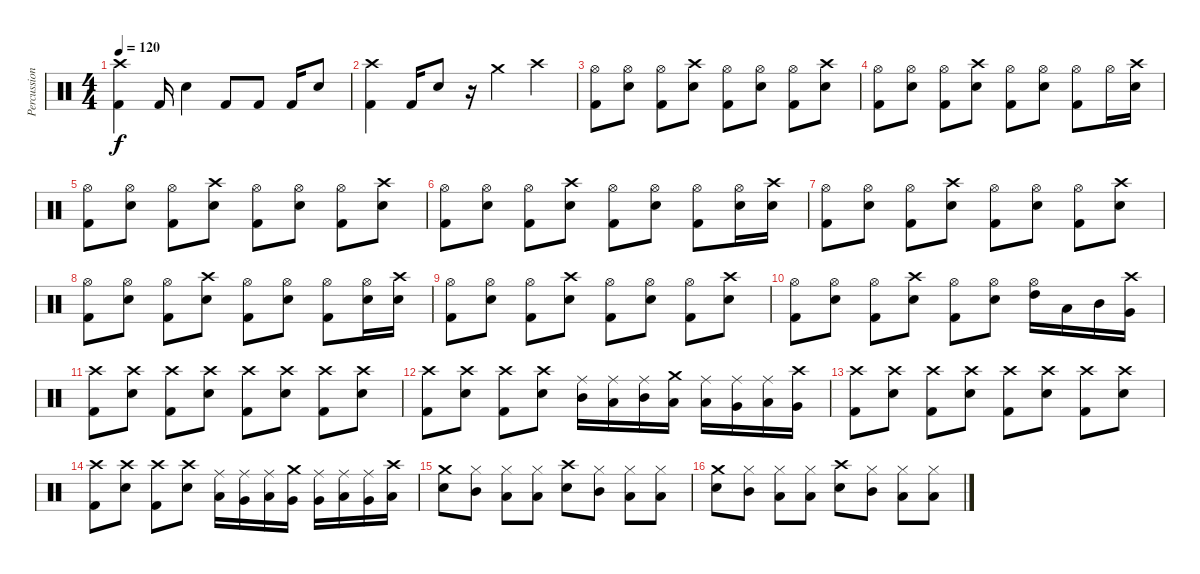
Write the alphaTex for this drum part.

\track ("Percussion" "Percussion") {instrument percussion}
\staff {score}
\articulation defaults
\ts (4 4)
\tempo 120
\clef neutral
\ks c
("Crash high (hit)" "Kick (hit) 2").4{dy f} "Kick (hit) 2".16 "Snare (hit) 2".4 "Kick (hit) 2".8 "Kick (hit) 2".8 "Kick (hit) 2".16 "Snare (hit) 2".8 |
("Crash high (hit)" "Kick (hit) 2").4 "Kick (hit) 2".16 "Snare (hit) 2".8 r.16 "Crash medium (hit)".4 "Crash high (hit)".4 |
("Hi-Hat (open)" "Kick (hit) 2").8 ("Hi-Hat (open)" "Snare (hit) 2").8 ("Hi-Hat (open)" "Kick (hit) 2").8 ("Crash high (hit)" "Snare (hit) 2").8 ("Hi-Hat (open)" "Kick (hit) 2").8 ("Hi-Hat (open)" "Snare (hit) 2").8 ("Hi-Hat (open)" "Kick (hit) 2").8 ("Crash high (hit)" "Snare (hit) 2").8 |
("Hi-Hat (open)" "Kick (hit) 2").8 ("Hi-Hat (open)" "Snare (hit) 2").8 ("Hi-Hat (open)" "Kick (hit) 2").8 ("Crash high (hit)" "Snare (hit) 2").8 ("Hi-Hat (open)" "Kick (hit) 2").8 ("Hi-Hat (open)" "Snare (hit) 2").8 ("Hi-Hat (open)" "Kick (hit) 2").8 "Hi-Hat (open)".16 ("Crash high (hit)" "Snare (hit) 2").16 |
("Hi-Hat (open)" "Kick (hit) 2").8 ("Hi-Hat (open)" "Snare (hit) 2").8 ("Hi-Hat (open)" "Kick (hit) 2").8 ("Crash high (hit)" "Snare (hit) 2").8 ("Hi-Hat (open)" "Kick (hit) 2").8 ("Hi-Hat (open)" "Snare (hit) 2").8 ("Hi-Hat (open)" "Kick (hit) 2").8 ("Crash high (hit)" "Snare (hit) 2").8 |
("Hi-Hat (open)" "Kick (hit) 2").8 ("Hi-Hat (open)" "Snare (hit) 2").8 ("Hi-Hat (open)" "Kick (hit) 2").8 ("Crash high (hit)" "Snare (hit) 2").8 ("Hi-Hat (open)" "Kick (hit) 2").8 ("Hi-Hat (open)" "Snare (hit) 2").8 ("Hi-Hat (open)" "Kick (hit) 2").8 ("Hi-Hat (open)" "Snare (hit) 2").16 ("Crash high (hit)" "Snare (hit) 2").16 |
("Hi-Hat (open)" "Kick (hit) 2").8 ("Hi-Hat (open)" "Snare (hit) 2").8 ("Hi-Hat (open)" "Kick (hit) 2").8 ("Crash high (hit)" "Snare (hit) 2").8 ("Hi-Hat (open)" "Kick (hit) 2").8 ("Hi-Hat (open)" "Snare (hit) 2").8 ("Hi-Hat (open)" "Kick (hit) 2").8 ("Crash high (hit)" "Snare (hit) 2").8 |
("Hi-Hat (open)" "Kick (hit) 2").8 ("Hi-Hat (open)" "Snare (hit) 2").8 ("Hi-Hat (open)" "Kick (hit) 2").8 ("Crash high (hit)" "Snare (hit) 2").8 ("Hi-Hat (open)" "Kick (hit) 2").8 ("Hi-Hat (open)" "Snare (hit) 2").8 ("Hi-Hat (open)" "Kick (hit) 2").8 ("Hi-Hat (open)" "Snare (hit) 2").16 ("Crash high (hit)" "Snare (hit) 2").16 |
("Hi-Hat (open)" "Kick (hit) 2").8 ("Hi-Hat (open)" "Snare (hit) 2").8 ("Hi-Hat (open)" "Kick (hit) 2").8 ("Crash high (hit)" "Snare (hit) 2").8 ("Hi-Hat (open)" "Kick (hit) 2").8 ("Hi-Hat (open)" "Snare (hit) 2").8 ("Hi-Hat (open)" "Kick (hit) 2").8 ("Crash high (hit)" "Snare (hit) 2").8 |
("Hi-Hat (open)" "Kick (hit) 2").8 ("Hi-Hat (open)" "Snare (hit) 2").8 ("Hi-Hat (open)" "Kick (hit) 2").8 ("Crash high (hit)" "Snare (hit) 2").8 ("Hi-Hat (open)" "Kick (hit) 2").8 ("Hi-Hat (open)" "Snare (hit) 2").8 ("Hi-Hat (open)" "High Tom (hit)").16 "Low Tom (hit)".16 "Mid Tom (hit)".16 ("Crash high (hit)" "Very Low Tom (hit)").16 |
("Crash high (hit)" "Kick (hit) 2").8 ("Crash high (hit)" "Snare (hit) 2").8 ("Crash high (hit)" "Kick (hit) 2").8 ("Crash high (hit)" "Snare (hit) 2").8 ("Crash high (hit)" "Kick (hit) 2").8 ("Crash high (hit)" "Snare (hit) 2").8 ("Crash high (hit)" "Kick (hit) 2").8 ("Crash high (hit)" "Snare (hit) 2").8 |
("Crash high (hit)" "Kick (hit) 2").8 ("Crash high (hit)" "Snare (hit) 2").8 ("Crash high (hit)" "Kick (hit) 2").8 ("Crash high (hit)" "Snare (hit) 2").8 ("Ride (middle)" "Mid Tom (hit)").16 ("Ride (middle)" "Low Tom (hit)").16 ("Ride (middle)" "Mid Tom (hit)").16 ("Crash medium (hit)" "Low Tom (hit)").16 ("Ride (middle)" "Low Tom (hit)").16 ("Ride (middle)" "Very Low Tom (hit)").16 ("Ride (middle)" "Low Tom (hit)").16 ("Crash high (hit)" "Very Low Tom (hit)").16 |
("Crash high (hit)" "Kick (hit) 2").8 ("Crash high (hit)" "Snare (hit) 2").8 ("Crash high (hit)" "Kick (hit) 2").8 ("Crash high (hit)" "Snare (hit) 2").8 ("Crash high (hit)" "Kick (hit) 2").8 ("Crash high (hit)" "Snare (hit) 2").8 ("Crash high (hit)" "Kick (hit) 2").8 ("Crash high (hit)" "Snare (hit) 2").8 |
("Crash high (hit)" "Kick (hit) 2").8 ("Crash high (hit)" "Snare (hit) 2").8 ("Crash high (hit)" "Kick (hit) 2").8 ("Crash high (hit)" "Snare (hit) 2").8 ("Ride (middle)" "Low Tom (hit)").16 ("Ride (middle)" "Very Low Tom (hit)").16 ("Ride (middle)" "Low Tom (hit)").16 ("Crash medium (hit)" "Very Low Tom (hit)").16 ("Ride (middle)" "Very Low Tom (hit)").16 ("Ride (middle)" "Low Floor Tom (hit)").16 ("Ride (middle)" "Very Low Tom (hit)").16 ("Crash high (hit)" "Low Floor Tom (hit)").16 |
("Crash medium (hit)" "Snare (hit) 2").8 ("Hi-Hat (closed)" "Mid Tom (hit)").8 ("Hi-Hat (closed)" "Low Tom (hit)").8 ("Hi-Hat (closed)" "Low Floor Tom (hit)").8 ("Crash high (hit)" "Snare (hit) 2").8 ("Hi-Hat (closed)" "Mid Tom (hit)").8 ("Hi-Hat (closed)" "Low Tom (hit)").8 ("Hi-Hat (closed)" "Low Floor Tom (hit)").8 |
("Crash medium (hit)" "Snare (hit) 2").8 ("Hi-Hat (closed)" "Mid Tom (hit)").8 ("Hi-Hat (closed)" "Low Tom (hit)").8 ("Hi-Hat (closed)" "Low Floor Tom (hit)").8 ("Crash high (hit)" "Snare (hit) 2").8 ("Hi-Hat (closed)" "Mid Tom (hit)").8 ("Hi-Hat (closed)" "Low Tom (hit)").8 ("Hi-Hat (closed)" "Low Floor Tom (hit)").8
